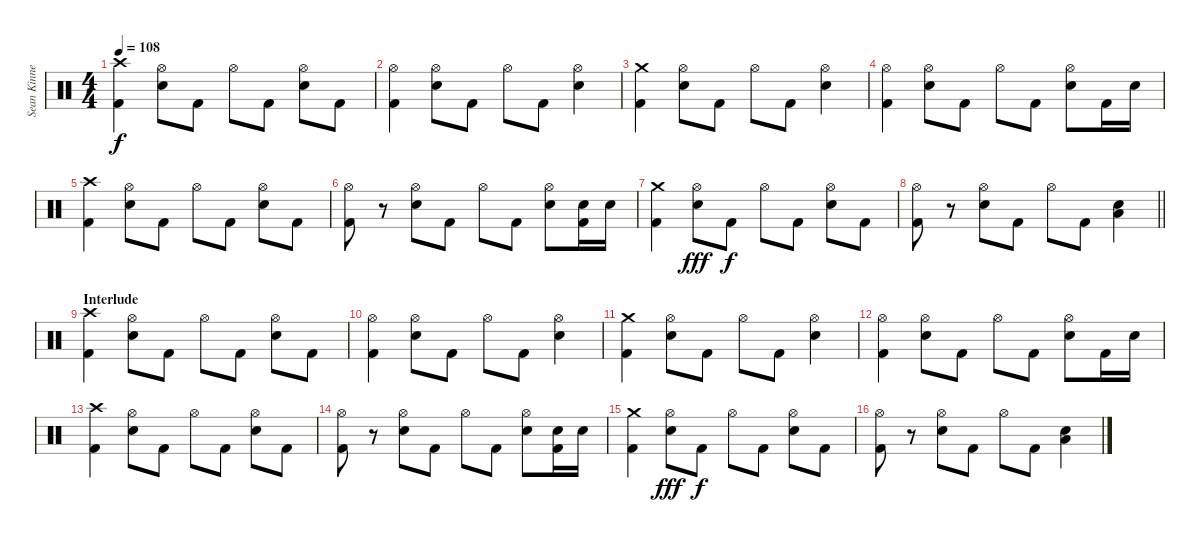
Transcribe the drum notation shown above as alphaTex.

\track ("Sean Kinney" "Sean Kinne") {instrument percussion}
\staff {score}
\articulation defaults
\ts (4 4)
\tempo 108
\clef neutral
\ks c
("Crash high (hit)" "Kick (hit) 2").4{dy f} ("Hi-Hat (open)" "Snare (hit) 2").8 "Kick (hit) 2".8 "Hi-Hat (open)".8 "Kick (hit) 2".8 ("Hi-Hat (open)" "Snare (hit) 2").8 "Kick (hit) 2".8 |
("Hi-Hat (open)" "Kick (hit) 2").4 ("Hi-Hat (open)" "Snare (hit) 2").8 "Kick (hit) 2".8 "Hi-Hat (open)".8 "Kick (hit) 2".8 ("Hi-Hat (open)" "Snare (hit) 2").4 |
("Crash medium (hit)" "Kick (hit) 2").4 ("Hi-Hat (open)" "Snare (hit) 2").8 "Kick (hit) 2".8 "Hi-Hat (open)".8 "Kick (hit) 2".8 ("Hi-Hat (open)" "Snare (hit) 2").4 |
("Hi-Hat (open)" "Kick (hit) 2").4 ("Hi-Hat (open)" "Snare (hit) 2").8 "Kick (hit) 2".8 "Hi-Hat (open)".8 "Kick (hit) 2".8 ("Hi-Hat (open)" "Snare (hit) 2").8 "Kick (hit) 2".16 "Snare (hit) 2".16 |
("Crash high (hit)" "Kick (hit) 2").4 ("Hi-Hat (open)" "Snare (hit) 2").8 "Kick (hit) 2".8 "Hi-Hat (open)".8 "Kick (hit) 2".8 ("Hi-Hat (open)" "Snare (hit) 2").8 "Kick (hit) 2".8 |
("Hi-Hat (open)" "Kick (hit) 2").8 r.8 ("Hi-Hat (open)" "Snare (hit) 2").8 "Kick (hit) 2".8 "Hi-Hat (open)".8 "Kick (hit) 2".8 ("Hi-Hat (open)" "Snare (hit) 2").8 ("Snare (hit) 2" "Kick (hit) 2").16 "Snare (hit) 2".16 |
("Crash medium (hit)" "Kick (hit) 2").4 ("Hi-Hat (open)" "Snare (hit) 2").8{dy fff} "Kick (hit) 2".8{dy f} "Hi-Hat (open)".8 "Kick (hit) 2".8 ("Hi-Hat (open)" "Snare (hit) 2").8 "Kick (hit) 2".8 |
\barLineRight lightlight
("Hi-Hat (open)" "Kick (hit) 2").8 r.8 ("Hi-Hat (open)" "Snare (hit) 2").8 "Kick (hit) 2".8 "Hi-Hat (open)".8 "Kick (hit) 2".8 ("Low Tom (hit)" "Snare (hit) 2").4 |
\section ("" "Interlude")
("Crash high (hit)" "Kick (hit) 2").4 ("Hi-Hat (open)" "Snare (hit) 2").8 "Kick (hit) 2".8 "Hi-Hat (open)".8 "Kick (hit) 2".8 ("Hi-Hat (open)" "Snare (hit) 2").8 "Kick (hit) 2".8 |
("Hi-Hat (open)" "Kick (hit) 2").4 ("Hi-Hat (open)" "Snare (hit) 2").8 "Kick (hit) 2".8 "Hi-Hat (open)".8 "Kick (hit) 2".8 ("Hi-Hat (open)" "Snare (hit) 2").4 |
("Crash medium (hit)" "Kick (hit) 2").4 ("Hi-Hat (open)" "Snare (hit) 2").8 "Kick (hit) 2".8 "Hi-Hat (open)".8 "Kick (hit) 2".8 ("Hi-Hat (open)" "Snare (hit) 2").4 |
("Hi-Hat (open)" "Kick (hit) 2").4 ("Hi-Hat (open)" "Snare (hit) 2").8 "Kick (hit) 2".8 "Hi-Hat (open)".8 "Kick (hit) 2".8 ("Hi-Hat (open)" "Snare (hit) 2").8 "Kick (hit) 2".16 "Snare (hit) 2".16 |
("Crash high (hit)" "Kick (hit) 2").4 ("Hi-Hat (open)" "Snare (hit) 2").8 "Kick (hit) 2".8 "Hi-Hat (open)".8 "Kick (hit) 2".8 ("Hi-Hat (open)" "Snare (hit) 2").8 "Kick (hit) 2".8 |
("Hi-Hat (open)" "Kick (hit) 2").8 r.8 ("Hi-Hat (open)" "Snare (hit) 2").8 "Kick (hit) 2".8 "Hi-Hat (open)".8 "Kick (hit) 2".8 ("Hi-Hat (open)" "Snare (hit) 2").8 ("Snare (hit) 2" "Kick (hit) 2").16 "Snare (hit) 2".16 |
("Crash medium (hit)" "Kick (hit) 2").4 ("Hi-Hat (open)" "Snare (hit) 2").8{dy fff} "Kick (hit) 2".8{dy f} "Hi-Hat (open)".8 "Kick (hit) 2".8 ("Hi-Hat (open)" "Snare (hit) 2").8 "Kick (hit) 2".8 |
("Hi-Hat (open)" "Kick (hit) 2").8 r.8 ("Hi-Hat (open)" "Snare (hit) 2").8 "Kick (hit) 2".8 "Hi-Hat (open)".8 "Kick (hit) 2".8 ("Low Tom (hit)" "Snare (hit) 2").4
